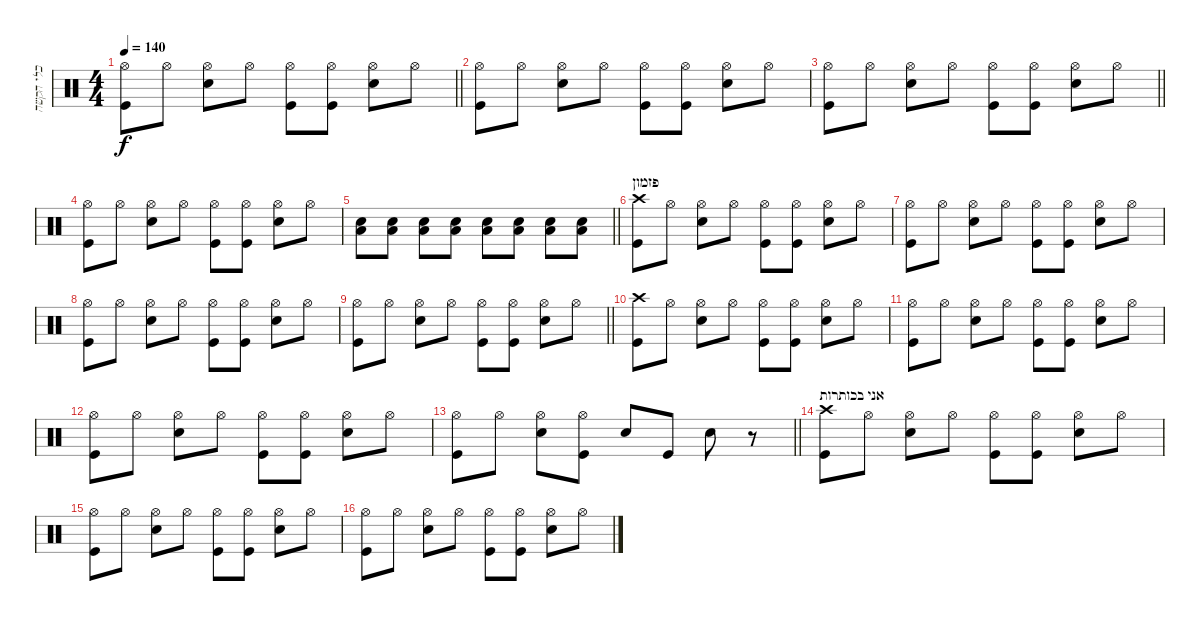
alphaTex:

\track ("כלי הקשה" "כלי הקשה") {instrument percussion}
\staff {score}
\articulation defaults
\ts (4 4)
\tempo 140
\clef neutral
\barLineRight lightlight
\ks c
("Kick (hit)" "Hi-Hat (open)").8{dy f} "Hi-Hat (open)".8 ("Snare (hit) 2" "Hi-Hat (open)").8 "Hi-Hat (open)".8 ("Kick (hit)" "Hi-Hat (open)").8 ("Kick (hit)" "Hi-Hat (open)").8 ("Snare (hit) 2" "Hi-Hat (open)").8 "Hi-Hat (open)".8 |
("Kick (hit)" "Hi-Hat (open)").8 "Hi-Hat (open)".8 ("Snare (hit) 2" "Hi-Hat (open)").8 "Hi-Hat (open)".8 ("Kick (hit)" "Hi-Hat (open)").8 ("Kick (hit)" "Hi-Hat (open)").8 ("Snare (hit) 2" "Hi-Hat (open)").8 "Hi-Hat (open)".8 |
\barLineRight lightlight
("Kick (hit)" "Hi-Hat (open)").8 "Hi-Hat (open)".8 ("Snare (hit) 2" "Hi-Hat (open)").8 "Hi-Hat (open)".8 ("Kick (hit)" "Hi-Hat (open)").8 ("Kick (hit)" "Hi-Hat (open)").8 ("Snare (hit) 2" "Hi-Hat (open)").8 "Hi-Hat (open)".8 |
("Kick (hit)" "Hi-Hat (open)").8 "Hi-Hat (open)".8 ("Snare (hit) 2" "Hi-Hat (open)").8 "Hi-Hat (open)".8 ("Kick (hit)" "Hi-Hat (open)").8 ("Kick (hit)" "Hi-Hat (open)").8 ("Snare (hit) 2" "Hi-Hat (open)").8 "Hi-Hat (open)".8 |
\barLineRight lightlight
("Low Floor Tom (hit)" "Snare (hit) 2").8 ("Low Floor Tom (hit)" "Snare (hit) 2").8 ("Low Floor Tom (hit)" "Snare (hit) 2").8 ("Low Floor Tom (hit)" "Snare (hit) 2").8 ("Low Floor Tom (hit)" "Snare (hit) 2").8 ("Low Floor Tom (hit)" "Snare (hit) 2").8 ("Low Floor Tom (hit)" "Snare (hit) 2").8 ("Low Floor Tom (hit)" "Snare (hit) 2").8 |
\section ("" "פזמון")
("Kick (hit)" "Crash high (hit)").8 "Hi-Hat (open)".8 ("Snare (hit) 2" "Hi-Hat (open)").8 "Hi-Hat (open)".8 ("Kick (hit)" "Hi-Hat (open)").8 ("Kick (hit)" "Hi-Hat (open)").8 ("Snare (hit) 2" "Hi-Hat (open)").8 "Hi-Hat (open)".8 |
("Kick (hit)" "Hi-Hat (open)").8 "Hi-Hat (open)".8 ("Snare (hit) 2" "Hi-Hat (open)").8 "Hi-Hat (open)".8 ("Kick (hit)" "Hi-Hat (open)").8 ("Kick (hit)" "Hi-Hat (open)").8 ("Snare (hit) 2" "Hi-Hat (open)").8 "Hi-Hat (open)".8 |
("Kick (hit)" "Hi-Hat (open)").8 "Hi-Hat (open)".8 ("Snare (hit) 2" "Hi-Hat (open)").8 "Hi-Hat (open)".8 ("Kick (hit)" "Hi-Hat (open)").8 ("Kick (hit)" "Hi-Hat (open)").8 ("Snare (hit) 2" "Hi-Hat (open)").8 "Hi-Hat (open)".8 |
\barLineRight lightlight
("Kick (hit)" "Hi-Hat (open)").8 "Hi-Hat (open)".8 ("Snare (hit) 2" "Hi-Hat (open)").8 "Hi-Hat (open)".8 ("Kick (hit)" "Hi-Hat (open)").8 ("Kick (hit)" "Hi-Hat (open)").8 ("Snare (hit) 2" "Hi-Hat (open)").8 "Hi-Hat (open)".8 |
("Kick (hit)" "Crash high (hit)").8 "Hi-Hat (open)".8 ("Snare (hit) 2" "Hi-Hat (open)").8 "Hi-Hat (open)".8 ("Kick (hit)" "Hi-Hat (open)").8 ("Kick (hit)" "Hi-Hat (open)").8 ("Snare (hit) 2" "Hi-Hat (open)").8 "Hi-Hat (open)".8 |
("Kick (hit)" "Hi-Hat (open)").8 "Hi-Hat (open)".8 ("Snare (hit) 2" "Hi-Hat (open)").8 "Hi-Hat (open)".8 ("Kick (hit)" "Hi-Hat (open)").8 ("Kick (hit)" "Hi-Hat (open)").8 ("Snare (hit) 2" "Hi-Hat (open)").8 "Hi-Hat (open)".8 |
("Kick (hit)" "Hi-Hat (open)").8 "Hi-Hat (open)".8 ("Snare (hit) 2" "Hi-Hat (open)").8 "Hi-Hat (open)".8 ("Kick (hit)" "Hi-Hat (open)").8 ("Kick (hit)" "Hi-Hat (open)").8 ("Snare (hit) 2" "Hi-Hat (open)").8 "Hi-Hat (open)".8 |
\barLineRight lightlight
("Kick (hit)" "Hi-Hat (open)").8 "Hi-Hat (open)".8 ("Snare (hit) 2" "Hi-Hat (open)").8 ("Kick (hit)" "Hi-Hat (open)").8 "Snare (hit) 2".8 "Kick (hit)".8 "Snare (hit) 2".8 r.8 |
\section ("" "אני בכותרות")
("Kick (hit)" "Crash high (hit)").8 "Hi-Hat (open)".8 ("Snare (hit) 2" "Hi-Hat (open)").8 "Hi-Hat (open)".8 ("Kick (hit)" "Hi-Hat (open)").8 ("Kick (hit)" "Hi-Hat (open)").8 ("Snare (hit) 2" "Hi-Hat (open)").8 "Hi-Hat (open)".8 |
("Kick (hit)" "Hi-Hat (open)").8 "Hi-Hat (open)".8 ("Snare (hit) 2" "Hi-Hat (open)").8 "Hi-Hat (open)".8 ("Kick (hit)" "Hi-Hat (open)").8 ("Kick (hit)" "Hi-Hat (open)").8 ("Snare (hit) 2" "Hi-Hat (open)").8 "Hi-Hat (open)".8 |
("Kick (hit)" "Hi-Hat (open)").8 "Hi-Hat (open)".8 ("Snare (hit) 2" "Hi-Hat (open)").8 "Hi-Hat (open)".8 ("Kick (hit)" "Hi-Hat (open)").8 ("Kick (hit)" "Hi-Hat (open)").8 ("Snare (hit) 2" "Hi-Hat (open)").8 "Hi-Hat (open)".8
